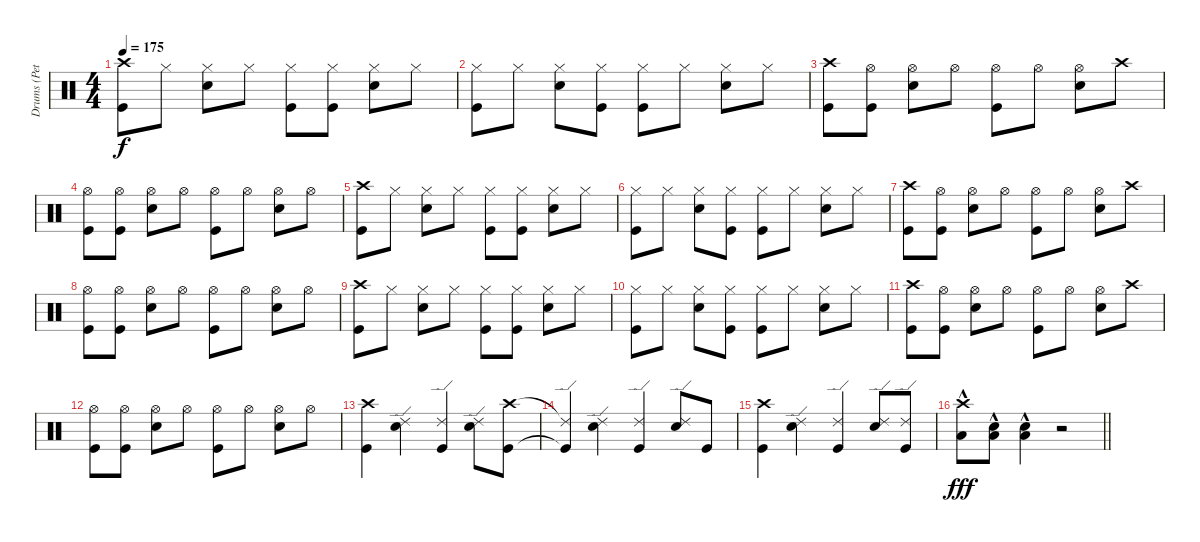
\track ("Drums (Peter Jensen)" "Drums (Pet") {instrument percussion}
\staff {score}
\articulation defaults
\ts (4 4)
\tempo 175
\clef neutral
\ks c
("Crash high (hit)" "Kick (hit)").8{dy f} "Hi-Hat (closed)".8 ("Hi-Hat (closed)" "Snare (hit) 2").8 "Hi-Hat (closed)".8 ("Hi-Hat (closed)" "Kick (hit)").8 ("Hi-Hat (closed)" "Kick (hit)").8 ("Hi-Hat (closed)" "Snare (hit) 2").8 "Hi-Hat (closed)".8 |
("Hi-Hat (closed)" "Kick (hit)").8 "Hi-Hat (closed)".8 ("Hi-Hat (closed)" "Snare (hit) 2").8 ("Hi-Hat (closed)" "Kick (hit)").8 ("Hi-Hat (closed)" "Kick (hit)").8 "Hi-Hat (closed)".8 ("Hi-Hat (closed)" "Snare (hit) 2").8 "Hi-Hat (closed)".8 |
("Crash high (hit)" "Kick (hit)").8 ("Hi-Hat (open)" "Kick (hit)").8 ("Hi-Hat (open)" "Snare (hit) 2").8 "Hi-Hat (open)".8 ("Hi-Hat (open)" "Kick (hit)").8 "Hi-Hat (open)".8 ("Hi-Hat (open)" "Snare (hit) 2").8 "Crash high (hit)".8 |
("Hi-Hat (open)" "Kick (hit)").8 ("Hi-Hat (open)" "Kick (hit)").8 ("Hi-Hat (open)" "Snare (hit) 2").8 "Hi-Hat (open)".8 ("Hi-Hat (open)" "Kick (hit)").8 "Hi-Hat (open)".8 ("Hi-Hat (open)" "Snare (hit) 2").8 "Hi-Hat (open)".8 |
("Crash high (hit)" "Kick (hit)").8 "Hi-Hat (closed)".8 ("Hi-Hat (closed)" "Snare (hit) 2").8 "Hi-Hat (closed)".8 ("Hi-Hat (closed)" "Kick (hit)").8 ("Hi-Hat (closed)" "Kick (hit)").8 ("Hi-Hat (closed)" "Snare (hit) 2").8 "Hi-Hat (closed)".8 |
("Hi-Hat (closed)" "Kick (hit)").8 "Hi-Hat (closed)".8 ("Hi-Hat (closed)" "Snare (hit) 2").8 ("Hi-Hat (closed)" "Kick (hit)").8 ("Hi-Hat (closed)" "Kick (hit)").8 "Hi-Hat (closed)".8 ("Hi-Hat (closed)" "Snare (hit) 2").8 "Hi-Hat (closed)".8 |
("Crash high (hit)" "Kick (hit)").8 ("Hi-Hat (open)" "Kick (hit)").8 ("Hi-Hat (open)" "Snare (hit) 2").8 "Hi-Hat (open)".8 ("Hi-Hat (open)" "Kick (hit)").8 "Hi-Hat (open)".8 ("Hi-Hat (open)" "Snare (hit) 2").8 "Crash high (hit)".8 |
("Hi-Hat (open)" "Kick (hit)").8 ("Hi-Hat (open)" "Kick (hit)").8 ("Hi-Hat (open)" "Snare (hit) 2").8 "Hi-Hat (open)".8 ("Hi-Hat (open)" "Kick (hit)").8 "Hi-Hat (open)".8 ("Hi-Hat (open)" "Snare (hit) 2").8 "Hi-Hat (open)".8 |
("Crash high (hit)" "Kick (hit)").8 "Hi-Hat (closed)".8 ("Hi-Hat (closed)" "Snare (hit) 2").8 "Hi-Hat (closed)".8 ("Hi-Hat (closed)" "Kick (hit)").8 ("Hi-Hat (closed)" "Kick (hit)").8 ("Hi-Hat (closed)" "Snare (hit) 2").8 "Hi-Hat (closed)".8 |
("Hi-Hat (closed)" "Kick (hit)").8 "Hi-Hat (closed)".8 ("Hi-Hat (closed)" "Snare (hit) 2").8 ("Hi-Hat (closed)" "Kick (hit)").8 ("Hi-Hat (closed)" "Kick (hit)").8 "Hi-Hat (closed)".8 ("Hi-Hat (closed)" "Snare (hit) 2").8 "Hi-Hat (closed)".8 |
("Crash high (hit)" "Kick (hit)").8 ("Hi-Hat (open)" "Kick (hit)").8 ("Hi-Hat (open)" "Snare (hit) 2").8 "Hi-Hat (open)".8 ("Hi-Hat (open)" "Kick (hit)").8 "Hi-Hat (open)".8 ("Hi-Hat (open)" "Snare (hit) 2").8 "Crash high (hit)".8 |
("Hi-Hat (open)" "Kick (hit)").8 ("Hi-Hat (open)" "Kick (hit)").8 ("Hi-Hat (open)" "Snare (hit) 2").8 "Hi-Hat (open)".8 ("Hi-Hat (open)" "Kick (hit)").8 "Hi-Hat (open)".8 ("Hi-Hat (open)" "Snare (hit) 2").8 "Hi-Hat (open)".8 |
("Crash high (hit)" "Kick (hit)").4 ("Ride (edge) 2" "Snare (hit) 2").4 ("Ride (edge) 2" "Kick (hit)").4 ("Ride (edge) 2" "Snare (hit) 2").8 ("Crash high (hit)" "Kick (hit)").8 |
("Ride (edge) 2"{t} "Kick (hit)"{t}).4 ("Ride (edge) 2" "Snare (hit) 2").4 ("Ride (edge) 2" "Kick (hit)").4 ("Ride (edge) 2" "Snare (hit) 2").8 "Kick (hit)".8 |
("Crash high (hit)" "Kick (hit)").4 ("Ride (edge) 2" "Snare (hit) 2").4 ("Ride (edge) 2" "Kick (hit)").4 ("Ride (edge) 2" "Snare (hit) 2").8 ("Ride (edge) 2" "Kick (hit)").8 |
\barLineRight lightlight
("Crash high (hit)"{hac} "Low Floor Tom (hit)"{hac}).8{dy fff} ("Snare (hit) 2"{hac} "Low Floor Tom (hit)"{hac}).8 ("Snare (hit) 2"{hac} "Low Floor Tom (hit)"{hac}).4 r.2
